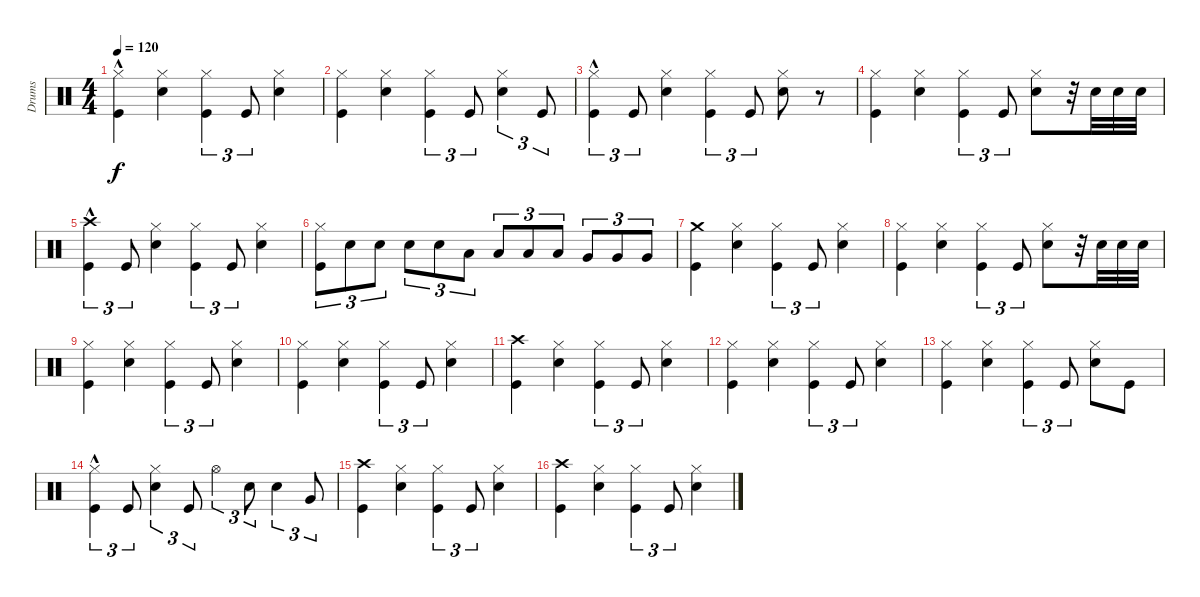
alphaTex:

\track ("Drums" "Drums") {instrument percussion}
\staff {score}
\articulation defaults
\ts (4 4)
\tempo 120
\clef neutral
\ks c
("Kick (hit)"{hac} "Hi-Hat (closed)").4{dy f} ("Snare (hit) 2" "Hi-Hat (closed)").4 ("Kick (hit)" "Hi-Hat (closed)").4{tu (3 2)} "Kick (hit)".8{tu (3 2)} ("Snare (hit) 2" "Hi-Hat (closed)").4 |
("Kick (hit)" "Hi-Hat (closed)").4 ("Snare (hit) 2" "Hi-Hat (closed)").4 ("Kick (hit)" "Hi-Hat (closed)").4{tu (3 2)} "Kick (hit)".8{tu (3 2)} ("Snare (hit) 2" "Hi-Hat (closed)").4{tu (3 2)} "Kick (hit)".8{tu (3 2)} |
("Kick (hit)"{hac} "Hi-Hat (closed)").4{tu (3 2)} "Kick (hit)".8{tu (3 2)} ("Snare (hit) 2" "Hi-Hat (closed)").4 ("Kick (hit)" "Hi-Hat (closed)").4{tu (3 2)} "Kick (hit)".8{tu (3 2)} ("Snare (hit) 2" "Hi-Hat (closed)").8 r.8 |
("Kick (hit)" "Hi-Hat (closed)").4 ("Snare (hit) 2" "Hi-Hat (closed)").4 ("Kick (hit)" "Hi-Hat (closed)").4{tu (3 2)} "Kick (hit)".8{tu (3 2)} ("Snare (hit) 2" "Hi-Hat (closed)").8 r.32 "Snare (hit) 2".32 "Snare (hit) 2".32 "Snare (hit) 2".32 |
("Kick (hit)"{hac} "Crash high (hit)").4{tu (3 2)} "Kick (hit)".8{tu (3 2)} ("Snare (hit) 2" "Hi-Hat (closed)").4 ("Kick (hit)" "Hi-Hat (closed)").4{tu (3 2)} "Kick (hit)".8{tu (3 2)} ("Snare (hit) 2" "Hi-Hat (closed)").4 |
("Kick (hit)" "Hi-Hat (closed)").8{tu (3 2)} "Snare (hit) 2".8{tu (3 2)} "Snare (hit) 2".8{tu (3 2)} "Snare (hit) 2".8{tu (3 2)} "Snare (hit) 2".8{tu (3 2)} "Low Tom (hit)".8{tu (3 2)} "Low Tom (hit)".8{tu (3 2)} "Low Tom (hit)".8{tu (3 2)} "Low Tom (hit)".8{tu (3 2)} "Very Low Tom (hit)".8{tu (3 2)} "Very Low Tom (hit)".8{tu (3 2)} "Very Low Tom (hit)".8{tu (3 2)} |
("Kick (hit)" "Crash medium (hit)").4 ("Snare (hit) 2" "Hi-Hat (closed)").4 ("Kick (hit)" "Hi-Hat (closed)").4{tu (3 2)} "Kick (hit)".8{tu (3 2)} ("Snare (hit) 2" "Hi-Hat (closed)").4 |
("Kick (hit)" "Hi-Hat (closed)").4 ("Snare (hit) 2" "Hi-Hat (closed)").4 ("Kick (hit)" "Hi-Hat (closed)").4{tu (3 2)} "Kick (hit)".8{tu (3 2)} ("Snare (hit) 2" "Hi-Hat (closed)").8 r.32 "Snare (hit) 2".32 "Snare (hit) 2".32 "Snare (hit) 2".32 |
("Kick (hit)" "Hi-Hat (closed)").4 ("Snare (hit) 2" "Hi-Hat (closed)").4 ("Kick (hit)" "Hi-Hat (closed)").4{tu (3 2)} "Kick (hit)".8{tu (3 2)} ("Snare (hit) 2" "Hi-Hat (closed)").4 |
("Kick (hit)" "Hi-Hat (closed)").4 ("Snare (hit) 2" "Hi-Hat (closed)").4 ("Kick (hit)" "Hi-Hat (closed)").4{tu (3 2)} "Kick (hit)".8{tu (3 2)} ("Snare (hit) 2" "Hi-Hat (closed)").4 |
("Kick (hit)" "Crash high (hit)").4 ("Snare (hit) 2" "Hi-Hat (closed)").4 ("Kick (hit)" "Hi-Hat (closed)").4{tu (3 2)} "Kick (hit)".8{tu (3 2)} ("Snare (hit) 2" "Hi-Hat (closed)").4 |
("Kick (hit)" "Hi-Hat (closed)").4 ("Snare (hit) 2" "Hi-Hat (closed)").4 ("Kick (hit)" "Hi-Hat (closed)").4{tu (3 2)} "Kick (hit)".8{tu (3 2)} ("Snare (hit) 2" "Hi-Hat (closed)").4 |
("Kick (hit)" "Hi-Hat (closed)").4 ("Snare (hit) 2" "Hi-Hat (closed)").4 ("Kick (hit)" "Hi-Hat (closed)").4{tu (3 2)} "Kick (hit)".8{tu (3 2)} ("Snare (hit) 2" "Hi-Hat (closed)").8 "Kick (hit)".8 |
("Kick (hit)"{hac} "Hi-Hat (closed)"{hac}).4{tu (3 2)} "Kick (hit)".8{tu (3 2)} ("Snare (hit) 2" "Hi-Hat (closed)").4{tu (3 2)} "Kick (hit)".8{tu (3 2)} "Hi-Hat (open)".4{tu (3 2)} "Snare (hit) 2".8{tu (3 2)} "Snare (hit) 2".4{tu (3 2)} "Very Low Tom (hit)".8{tu (3 2)} |
("Kick (hit)" "Crash high (hit)").4 ("Snare (hit) 2" "Hi-Hat (closed)").4 ("Kick (hit)" "Hi-Hat (closed)").4{tu (3 2)} "Kick (hit)".8{tu (3 2)} ("Snare (hit) 2" "Hi-Hat (closed)").4 |
("Kick (hit)" "Crash high (hit)").4 ("Snare (hit) 2" "Hi-Hat (closed)").4 ("Kick (hit)" "Hi-Hat (closed)").4{tu (3 2)} "Kick (hit)".8{tu (3 2)} ("Snare (hit) 2" "Hi-Hat (closed)").4
